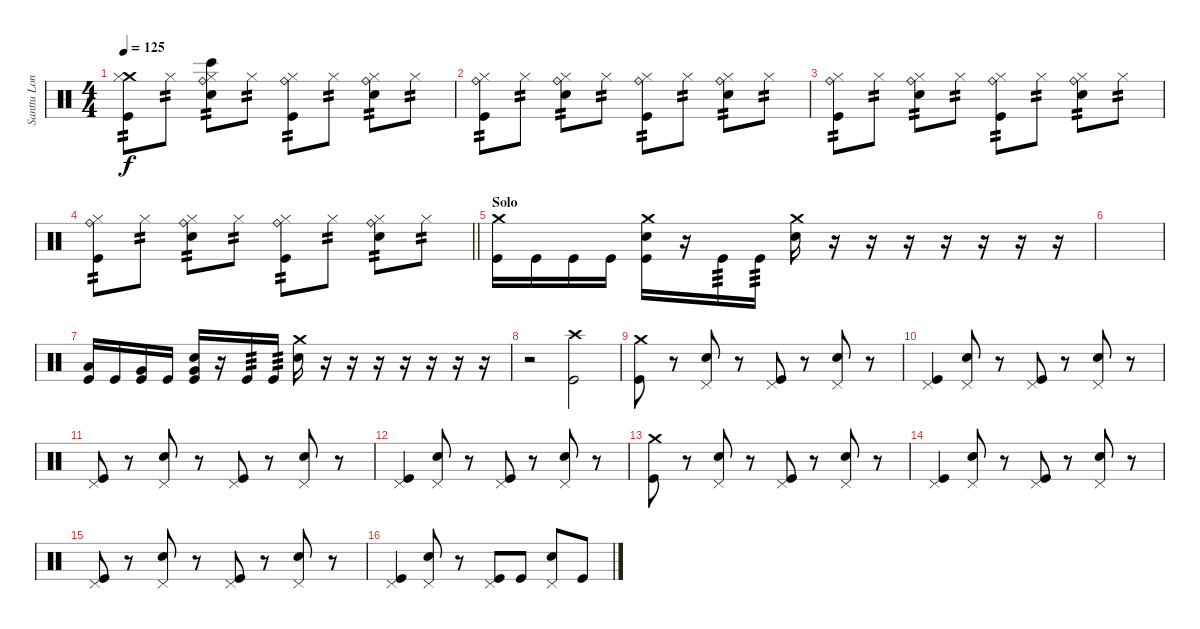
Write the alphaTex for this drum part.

\track ("Santtu Lonka" "Santtu Lon") {instrument percussion}
\staff {score}
\articulation defaults
\ts (4 4)
\tempo 125
\clef neutral
\ks c
("Crash medium (hit)" "Hi-Hat (closed)" "Kick (hit)").8{tp 2 dy f} "Hi-Hat (closed)".8{tp 2} ("Ride (bell)" "Hi-Hat (closed)" "Electric Snare (hit)" "Bongo High (hit)").8{tp 2} "Hi-Hat (closed)".8{tp 2} ("Ride (bell)" "Hi-Hat (closed)" "Kick (hit)").8{tp 2} "Hi-Hat (closed)".8{tp 2} ("Ride (bell)" "Hi-Hat (closed)" "Electric Snare (hit)").8{tp 2} "Hi-Hat (closed)".8{tp 2} |
("Ride (bell)" "Hi-Hat (closed)" "Kick (hit)").8{tp 2} "Hi-Hat (closed)".8{tp 2} ("Ride (bell)" "Hi-Hat (closed)" "Electric Snare (hit)").8{tp 2} "Hi-Hat (closed)".8{tp 2} ("Ride (bell)" "Hi-Hat (closed)" "Kick (hit)").8{tp 2} "Hi-Hat (closed)".8{tp 2} ("Ride (bell)" "Hi-Hat (closed)" "Electric Snare (hit)").8{tp 2} "Hi-Hat (closed)".8{tp 2} |
("Ride (bell)" "Hi-Hat (closed)" "Kick (hit)").8{tp 2} "Hi-Hat (closed)".8{tp 2} ("Ride (bell)" "Hi-Hat (closed)" "Electric Snare (hit)").8{tp 2} "Hi-Hat (closed)".8{tp 2} ("Ride (bell)" "Hi-Hat (closed)" "Kick (hit)").8{tp 2} "Hi-Hat (closed)".8{tp 2} ("Ride (bell)" "Hi-Hat (closed)" "Electric Snare (hit)").8{tp 2} "Hi-Hat (closed)".8{tp 2} |
\barLineRight lightlight
("Ride (bell)" "Hi-Hat (closed)" "Kick (hit)").8{tp 2} "Hi-Hat (closed)".8{tp 2} ("Ride (bell)" "Hi-Hat (closed)" "Electric Snare (hit)").8{tp 2} "Hi-Hat (closed)".8{tp 2} ("Ride (bell)" "Hi-Hat (closed)" "Kick (hit)").8{tp 2} "Hi-Hat (closed)".8{tp 2} ("Ride (bell)" "Hi-Hat (closed)" "Electric Snare (hit)").8{tp 2} "Hi-Hat (closed)".8{tp 2} |
\section ("" "Solo")
("Crash medium (hit)" "Kick (hit)").16 "Kick (hit)".16 "Kick (hit)".16 "Kick (hit)".16 ("Crash medium (hit)" "Electric Snare (hit)" "Kick (hit)").16 r.16 "Kick (hit)".16{tp 3} "Kick (hit)".16{tp 3} ("Crash medium (hit)" "Electric Snare (hit)").16 r.16 r.16 r.16 r.16 r.16 r.16 r.16 |
|
("Low Tom (hit)" "Kick (hit)").16 "Kick (hit)".16 ("Very Low Tom (hit)" "Kick (hit)").16 "Kick (hit)".16 ("Very Low Tom (hit)" "Electric Snare (hit)" "Kick (hit)").16 r.16 "Kick (hit)".16{tp 3} "Kick (hit)".16{tp 3} ("Crash medium (hit)" "Electric Snare (hit)").16 r.16 r.16 r.16 r.16 r.16 r.16 r.16 |
r.2 ("Crash high (hit)" "Kick (hit)").2 |
("Crash medium (hit)" "Kick (hit)").8 r.8 ("Pedal Hi-Hat (hit)" "Electric Snare (hit)").8 r.8 ("Pedal Hi-Hat (hit)" "Kick (hit)").8 r.8 ("Pedal Hi-Hat (hit)" "Electric Snare (hit)").8 r.8 |
("Pedal Hi-Hat (hit)" "Kick (hit)").4 ("Pedal Hi-Hat (hit)" "Electric Snare (hit)").8 r.8 ("Pedal Hi-Hat (hit)" "Kick (hit)").8 r.8 ("Pedal Hi-Hat (hit)" "Electric Snare (hit)").8 r.8 |
("Pedal Hi-Hat (hit)" "Kick (hit)").8 r.8 ("Pedal Hi-Hat (hit)" "Electric Snare (hit)").8 r.8 ("Pedal Hi-Hat (hit)" "Kick (hit)").8 r.8 ("Pedal Hi-Hat (hit)" "Electric Snare (hit)").8 r.8 |
("Pedal Hi-Hat (hit)" "Kick (hit)").4 ("Pedal Hi-Hat (hit)" "Electric Snare (hit)").8 r.8 ("Pedal Hi-Hat (hit)" "Kick (hit)").8 r.8 ("Pedal Hi-Hat (hit)" "Electric Snare (hit)").8 r.8 |
("Crash medium (hit)" "Kick (hit)").8 r.8 ("Pedal Hi-Hat (hit)" "Electric Snare (hit)").8 r.8 ("Pedal Hi-Hat (hit)" "Kick (hit)").8 r.8 ("Pedal Hi-Hat (hit)" "Electric Snare (hit)").8 r.8 |
("Pedal Hi-Hat (hit)" "Kick (hit)").4 ("Pedal Hi-Hat (hit)" "Electric Snare (hit)").8 r.8 ("Pedal Hi-Hat (hit)" "Kick (hit)").8 r.8 ("Pedal Hi-Hat (hit)" "Electric Snare (hit)").8 r.8 |
("Pedal Hi-Hat (hit)" "Kick (hit)").8 r.8 ("Pedal Hi-Hat (hit)" "Electric Snare (hit)").8 r.8 ("Pedal Hi-Hat (hit)" "Kick (hit)").8 r.8 ("Pedal Hi-Hat (hit)" "Electric Snare (hit)").8 r.8 |
("Pedal Hi-Hat (hit)" "Kick (hit)").4 ("Pedal Hi-Hat (hit)" "Electric Snare (hit)").8 r.8 ("Pedal Hi-Hat (hit)" "Kick (hit)").8 "Kick (hit)".8 ("Pedal Hi-Hat (hit)" "Electric Snare (hit)").8 "Kick (hit)".8
